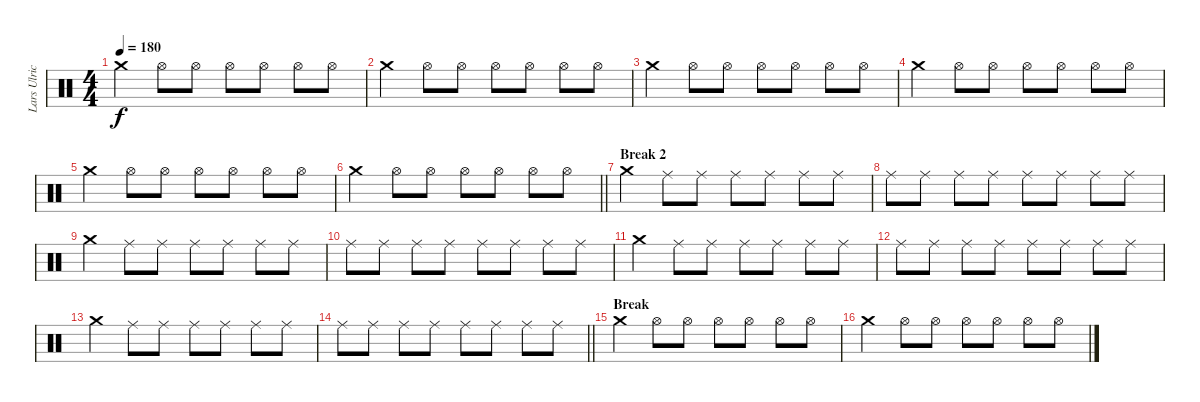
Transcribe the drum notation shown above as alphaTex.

\track ("Lars Ulrich" "Lars Ulric") {instrument percussion}
\staff {score}
\articulation defaults
\ts (4 4)
\tempo 180
\clef neutral
\ks c "Crash medium (hit)".4{dy f} "Hi-Hat (open)".8 "Hi-Hat (open)".8 "Hi-Hat (open)".8 "Hi-Hat (open)".8 "Hi-Hat (open)".8 "Hi-Hat (open)".8
|
"Crash medium (hit)".4 "Hi-Hat (open)".8 "Hi-Hat (open)".8 "Hi-Hat (open)".8 "Hi-Hat (open)".8 "Hi-Hat (open)".8 "Hi-Hat (open)".8 |
"Crash medium (hit)".4 "Hi-Hat (open)".8 "Hi-Hat (open)".8 "Hi-Hat (open)".8 "Hi-Hat (open)".8 "Hi-Hat (open)".8 "Hi-Hat (open)".8 |
"Crash medium (hit)".4 "Hi-Hat (open)".8 "Hi-Hat (open)".8 "Hi-Hat (open)".8 "Hi-Hat (open)".8 "Hi-Hat (open)".8 "Hi-Hat (open)".8 |
"Crash medium (hit)".4 "Hi-Hat (open)".8 "Hi-Hat (open)".8 "Hi-Hat (open)".8 "Hi-Hat (open)".8 "Hi-Hat (open)".8 "Hi-Hat (open)".8 |
\barLineRight lightlight "Crash medium (hit)".4 "Hi-Hat (open)".8 "Hi-Hat (open)".8 "Hi-Hat (open)".8 "Hi-Hat (open)".8 "Hi-Hat (open)".8 "Hi-Hat (open)".8
|
\section ("" "Break 2")
"Crash medium (hit)".4 "Ride (middle)".8 "Ride (middle)".8 "Ride (middle)".8 "Ride (middle)".8 "Ride (middle)".8 "Ride (middle)".8 |
"Ride (middle)".8 "Ride (middle)".8 "Ride (middle)".8 "Ride (middle)".8 "Ride (middle)".8 "Ride (middle)".8 "Ride (middle)".8 "Ride (middle)".8 |
"Crash medium (hit)".4 "Ride (middle)".8 "Ride (middle)".8 "Ride (middle)".8 "Ride (middle)".8 "Ride (middle)".8 "Ride (middle)".8 |
"Ride (middle)".8 "Ride (middle)".8 "Ride (middle)".8 "Ride (middle)".8 "Ride (middle)".8 "Ride (middle)".8 "Ride (middle)".8 "Ride (middle)".8 |
"Crash medium (hit)".4 "Ride (middle)".8 "Ride (middle)".8 "Ride (middle)".8 "Ride (middle)".8 "Ride (middle)".8 "Ride (middle)".8 |
"Ride (middle)".8 "Ride (middle)".8 "Ride (middle)".8 "Ride (middle)".8 "Ride (middle)".8 "Ride (middle)".8 "Ride (middle)".8 "Ride (middle)".8 |
"Crash medium (hit)".4 "Ride (middle)".8 "Ride (middle)".8 "Ride (middle)".8 "Ride (middle)".8 "Ride (middle)".8 "Ride (middle)".8 |
\barLineRight lightlight "Ride (middle)".8 "Ride (middle)".8 "Ride (middle)".8 "Ride (middle)".8 "Ride (middle)".8 "Ride (middle)".8 "Ride (middle)".8 "Ride (middle)".8
|
\section ("" "Break")
"Crash medium (hit)".4 "Hi-Hat (open)".8 "Hi-Hat (open)".8 "Hi-Hat (open)".8 "Hi-Hat (open)".8 "Hi-Hat (open)".8 "Hi-Hat (open)".8 |
"Crash medium (hit)".4 "Hi-Hat (open)".8 "Hi-Hat (open)".8 "Hi-Hat (open)".8 "Hi-Hat (open)".8 "Hi-Hat (open)".8 "Hi-Hat (open)".8
